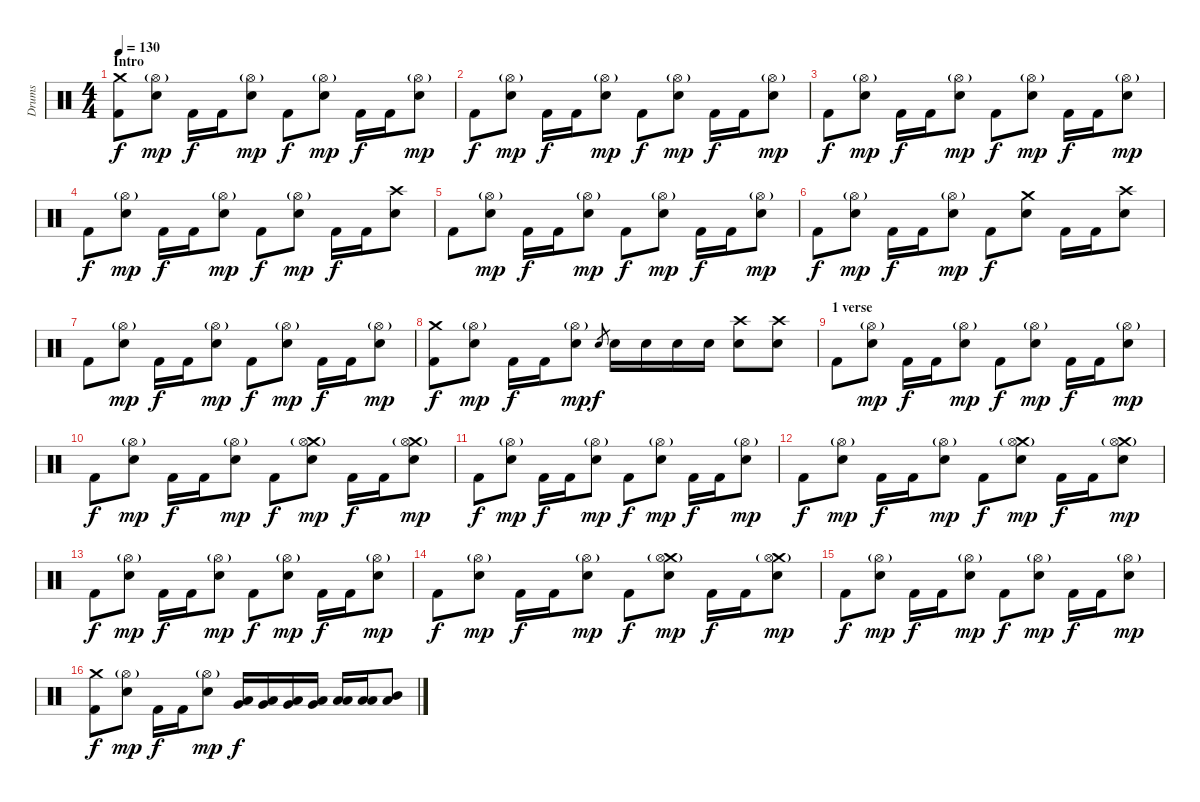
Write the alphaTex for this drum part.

\track ("Drums" "Drums") {instrument percussion}
\staff {score}
\articulation defaults
\ts (4 4)
\section ("" "Intro")
\tempo 130
\clef neutral
\ks c
("Crash medium (hit)" "Kick (hit) 2").8{dy f} ("Hi-Hat (open)"{g} "Electric Snare (hit)").8{dy mp} "Kick (hit) 2".16{dy f} "Kick (hit) 2".16 ("Hi-Hat (open)"{g} "Electric Snare (hit)").8{dy mp} "Kick (hit) 2".8{dy f} ("Hi-Hat (open)"{g} "Electric Snare (hit)").8{dy mp} "Kick (hit) 2".16{dy f} "Kick (hit) 2".16 ("Hi-Hat (open)"{g} "Electric Snare (hit)").8{dy mp} |
"Kick (hit) 2".8{dy f} ("Hi-Hat (open)"{g} "Electric Snare (hit)").8{dy mp} "Kick (hit) 2".16{dy f} "Kick (hit) 2".16 ("Hi-Hat (open)"{g} "Electric Snare (hit)").8{dy mp} "Kick (hit) 2".8{dy f} ("Hi-Hat (open)"{g} "Electric Snare (hit)").8{dy mp} "Kick (hit) 2".16{dy f} "Kick (hit) 2".16 ("Hi-Hat (open)"{g} "Electric Snare (hit)").8{dy mp} |
"Kick (hit) 2".8{dy f} ("Hi-Hat (open)"{g} "Electric Snare (hit)").8{dy mp} "Kick (hit) 2".16{dy f} "Kick (hit) 2".16 ("Hi-Hat (open)"{g} "Electric Snare (hit)").8{dy mp} "Kick (hit) 2".8{dy f} ("Hi-Hat (open)"{g} "Electric Snare (hit)").8{dy mp} "Kick (hit) 2".16{dy f} "Kick (hit) 2".16 ("Hi-Hat (open)"{g} "Electric Snare (hit)").8{dy mp} |
"Kick (hit) 2".8{dy f} ("Hi-Hat (open)"{g} "Electric Snare (hit)").8{dy mp} "Kick (hit) 2".16{dy f} "Kick (hit) 2".16 ("Hi-Hat (open)"{g} "Electric Snare (hit)").8{dy mp} "Kick (hit) 2".8{dy f} ("Hi-Hat (open)"{g} "Electric Snare (hit)").8{dy mp} "Kick (hit) 2".16{dy f} "Kick (hit) 2".16 ("Crash high (hit)" "Electric Snare (hit)").8 |
"Kick (hit) 2".8 ("Hi-Hat (open)"{g} "Electric Snare (hit)").8{dy mp} "Kick (hit) 2".16{dy f} "Kick (hit) 2".16 ("Hi-Hat (open)"{g} "Electric Snare (hit)").8{dy mp} "Kick (hit) 2".8{dy f} ("Hi-Hat (open)"{g} "Electric Snare (hit)").8{dy mp} "Kick (hit) 2".16{dy f} "Kick (hit) 2".16 ("Hi-Hat (open)"{g} "Electric Snare (hit)").8{dy mp} |
"Kick (hit) 2".8{dy f} ("Hi-Hat (open)"{g} "Electric Snare (hit)").8{dy mp} "Kick (hit) 2".16{dy f} "Kick (hit) 2".16 ("Hi-Hat (open)"{g} "Electric Snare (hit)").8{dy mp} "Kick (hit) 2".8{dy f} ("Crash medium (hit)" "Electric Snare (hit)").8 "Kick (hit) 2".16 "Kick (hit) 2".16 ("Crash high (hit)" "Electric Snare (hit)").8 |
"Kick (hit) 2".8 ("Hi-Hat (open)"{g} "Electric Snare (hit)").8{dy mp} "Kick (hit) 2".16{dy f} "Kick (hit) 2".16 ("Hi-Hat (open)"{g} "Electric Snare (hit)").8{dy mp} "Kick (hit) 2".8{dy f} ("Hi-Hat (open)"{g} "Electric Snare (hit)").8{dy mp} "Kick (hit) 2".16{dy f} "Kick (hit) 2".16 ("Hi-Hat (open)"{g} "Electric Snare (hit)").8{dy mp} |
("Crash medium (hit)" "Kick (hit) 2").8{dy f} ("Hi-Hat (open)"{g} "Electric Snare (hit)").8{dy mp} "Kick (hit) 2".16{dy f} "Kick (hit) 2".16 ("Hi-Hat (open)"{g} "Electric Snare (hit)").8{dy mp} "Electric Snare (hit)".8{gr dy f} "Electric Snare (hit)".16 "Electric Snare (hit)".16 "Electric Snare (hit)".16 "Electric Snare (hit)".16 ("Crash high (hit)" "Electric Snare (hit)").8 ("Crash high (hit)" "Electric Snare (hit)").8 |
\section ("" "1 verse")
"Kick (hit) 2".8 ("Hi-Hat (open)"{g} "Electric Snare (hit)").8{dy mp} "Kick (hit) 2".16{dy f} "Kick (hit) 2".16 ("Hi-Hat (open)"{g} "Electric Snare (hit)").8{dy mp} "Kick (hit) 2".8{dy f} ("Hi-Hat (open)"{g} "Electric Snare (hit)").8{dy mp} "Kick (hit) 2".16{dy f} "Kick (hit) 2".16 ("Hi-Hat (open)"{g} "Electric Snare (hit)").8{dy mp} |
"Kick (hit) 2".8{dy f} ("Hi-Hat (open)"{g} "Electric Snare (hit)").8{dy mp} "Kick (hit) 2".16{dy f} "Kick (hit) 2".16 ("Hi-Hat (open)"{g} "Electric Snare (hit)").8{dy mp} "Kick (hit) 2".8{dy f} ("Crash medium (hit)"{g} "Hi-Hat (open)"{g} "Electric Snare (hit)").8{dy mp} "Kick (hit) 2".16{dy f} "Kick (hit) 2".16 ("Crash medium (hit)"{g} "Hi-Hat (open)"{g} "Electric Snare (hit)").8{dy mp} |
"Kick (hit) 2".8{dy f} ("Hi-Hat (open)"{g} "Electric Snare (hit)").8{dy mp} "Kick (hit) 2".16{dy f} "Kick (hit) 2".16 ("Hi-Hat (open)"{g} "Electric Snare (hit)").8{dy mp} "Kick (hit) 2".8{dy f} ("Hi-Hat (open)"{g} "Electric Snare (hit)").8{dy mp} "Kick (hit) 2".16{dy f} "Kick (hit) 2".16 ("Hi-Hat (open)"{g} "Electric Snare (hit)").8{dy mp} |
"Kick (hit) 2".8{dy f} ("Hi-Hat (open)"{g} "Electric Snare (hit)").8{dy mp} "Kick (hit) 2".16{dy f} "Kick (hit) 2".16 ("Hi-Hat (open)"{g} "Electric Snare (hit)").8{dy mp} "Kick (hit) 2".8{dy f} ("Crash medium (hit)"{g} "Hi-Hat (open)"{g} "Electric Snare (hit)").8{dy mp} "Kick (hit) 2".16{dy f} "Kick (hit) 2".16 ("Crash medium (hit)"{g} "Hi-Hat (open)"{g} "Electric Snare (hit)").8{dy mp} |
"Kick (hit) 2".8{dy f} ("Hi-Hat (open)"{g} "Electric Snare (hit)").8{dy mp} "Kick (hit) 2".16{dy f} "Kick (hit) 2".16 ("Hi-Hat (open)"{g} "Electric Snare (hit)").8{dy mp} "Kick (hit) 2".8{dy f} ("Hi-Hat (open)"{g} "Electric Snare (hit)").8{dy mp} "Kick (hit) 2".16{dy f} "Kick (hit) 2".16 ("Hi-Hat (open)"{g} "Electric Snare (hit)").8{dy mp} |
"Kick (hit) 2".8{dy f} ("Hi-Hat (open)"{g} "Electric Snare (hit)").8{dy mp} "Kick (hit) 2".16{dy f} "Kick (hit) 2".16 ("Hi-Hat (open)"{g} "Electric Snare (hit)").8{dy mp} "Kick (hit) 2".8{dy f} ("Crash medium (hit)"{g} "Hi-Hat (open)"{g} "Electric Snare (hit)").8{dy mp} "Kick (hit) 2".16{dy f} "Kick (hit) 2".16 ("Crash medium (hit)"{g} "Hi-Hat (open)"{g} "Electric Snare (hit)").8{dy mp} |
"Kick (hit) 2".8{dy f} ("Hi-Hat (open)"{g} "Electric Snare (hit)").8{dy mp} "Kick (hit) 2".16{dy f} "Kick (hit) 2".16 ("Hi-Hat (open)"{g} "Electric Snare (hit)").8{dy mp} "Kick (hit) 2".8{dy f} ("Hi-Hat (open)"{g} "Electric Snare (hit)").8{dy mp} "Kick (hit) 2".16{dy f} "Kick (hit) 2".16 ("Hi-Hat (open)"{g} "Electric Snare (hit)").8{dy mp} |
("Crash medium (hit)" "Kick (hit) 2").8{dy f} ("Hi-Hat (open)"{g} "Electric Snare (hit)").8{dy mp} "Kick (hit) 2".16{dy f} "Kick (hit) 2".16 ("Hi-Hat (open)"{g} "Electric Snare (hit)").8{dy mp} ("Very Low Tom (hit)" "Low Floor Tom (hit)").16{dy f} ("Very Low Tom (hit)" "Low Floor Tom (hit)").16 ("Very Low Tom (hit)" "Low Floor Tom (hit)").16 ("Very Low Tom (hit)" "Low Floor Tom (hit)").16 ("Low Tom (hit)" "Low Floor Tom (hit)").16 ("Low Tom (hit)" "Low Floor Tom (hit)").16 ("Mid Tom (hit)" "Low Floor Tom (hit)").8
